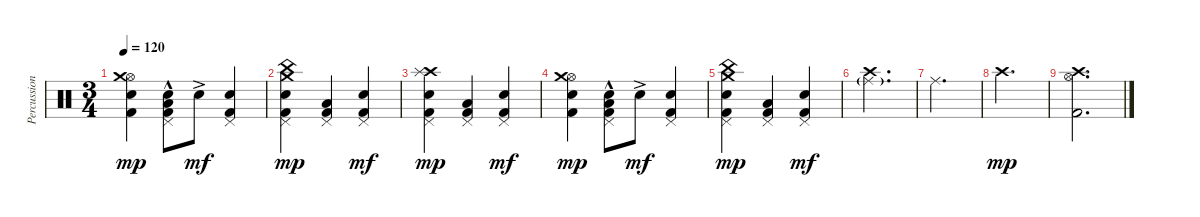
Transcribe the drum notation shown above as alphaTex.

\track ("Percussion" "Percussion") {instrument percussion}
\staff {score}
\articulation defaults
\ts (3 4)
\tempo 120
\clef neutral
\ks c
("Snare (hit) 2" "Kick (hit) 2" "Hi-Hat (open)" "Crash medium (hit)").4{dy mp} ("Snare (hit) 2"{hac} "Kick (hit) 2" "Pedal Hi-Hat (hit)" "Low Tom (hit)").8 "Snare (hit) 2"{ac}.8{dy mf} ("Snare (hit) 2" "Kick (hit) 2" "Pedal Hi-Hat (hit)").4 |
("Snare (hit) 2" "Kick (hit) 2" "Crash medium (hit)" "Pedal Hi-Hat (hit)" "China (hit)").4{dy mp} ("Kick (hit) 2" "Pedal Hi-Hat (hit)" "Low Tom (hit)").4 ("Snare (hit) 2" "Kick (hit) 2" "Pedal Hi-Hat (hit)").4{dy mf} |
("Snare (hit) 2" "Kick (hit) 2" "Crash high (hit)" "Pedal Hi-Hat (hit)" "Splash (hit)").4{dy mp} ("Kick (hit) 2" "Pedal Hi-Hat (hit)" "Low Tom (hit)").4 ("Snare (hit) 2" "Kick (hit) 2" "Pedal Hi-Hat (hit)").4{dy mf} |
("Snare (hit) 2" "Kick (hit) 2" "Hi-Hat (open)" "Crash medium (hit)").4{dy mp} ("Snare (hit) 2"{hac} "Kick (hit) 2" "Pedal Hi-Hat (hit)" "Low Tom (hit)").8 "Snare (hit) 2"{ac}.8{dy mf} ("Snare (hit) 2" "Kick (hit) 2" "Pedal Hi-Hat (hit)").4 |
("Snare (hit) 2" "Kick (hit) 2" "Crash medium (hit)" "Pedal Hi-Hat (hit)" "China (hit)").4{dy mp} ("Kick (hit) 2" "Pedal Hi-Hat (hit)" "Low Tom (hit)").4 ("Snare (hit) 2" "Kick (hit) 2" "Pedal Hi-Hat (hit)").4{dy mf} |
("Ride (middle)"{g} "Crash high (hit)").2{d volume 10} |
"Ride (middle)".2{d} |
"Crash high (hit)".2{d dy mp} |
("Kick (hit) 2" "Hi-Hat (open)" "Crash high (hit)").2{d}
